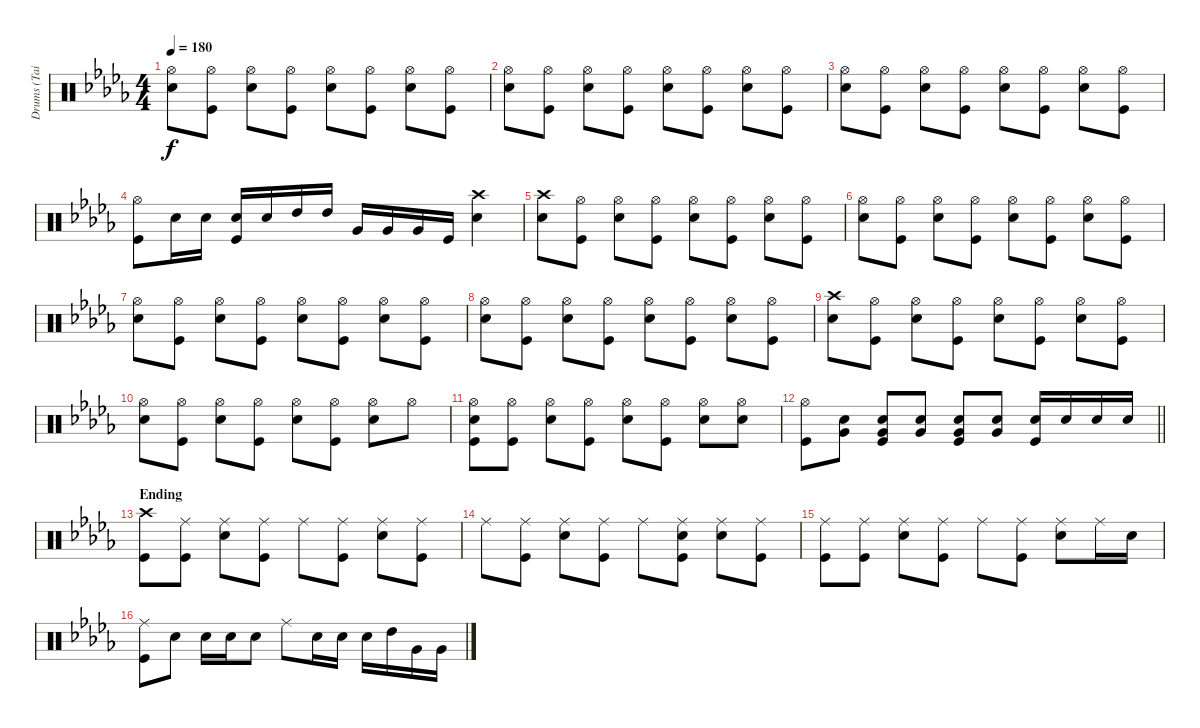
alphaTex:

\track ("Drums (Tainaka Ritsu)" "Drums (Tai") {instrument percussion}
\staff {score}
\articulation defaults
\ts (4 4)
\tempo 180
\clef neutral
\ks db
("Hi-Hat (open)" "Snare (hit) 2").8{dy f} ("Hi-Hat (open)" "Kick (hit)").8 ("Hi-Hat (open)" "Snare (hit) 2").8 ("Hi-Hat (open)" "Kick (hit)").8 ("Hi-Hat (open)" "Snare (hit) 2").8 ("Hi-Hat (open)" "Kick (hit)").8 ("Hi-Hat (open)" "Snare (hit) 2").8 ("Hi-Hat (open)" "Kick (hit)").8 |
("Hi-Hat (open)" "Snare (hit) 2").8 ("Hi-Hat (open)" "Kick (hit)").8 ("Hi-Hat (open)" "Snare (hit) 2").8 ("Hi-Hat (open)" "Kick (hit)").8 ("Hi-Hat (open)" "Snare (hit) 2").8 ("Hi-Hat (open)" "Kick (hit)").8 ("Hi-Hat (open)" "Snare (hit) 2").8 ("Hi-Hat (open)" "Kick (hit)").8 |
("Hi-Hat (open)" "Snare (hit) 2").8 ("Hi-Hat (open)" "Kick (hit)").8 ("Hi-Hat (open)" "Snare (hit) 2").8 ("Hi-Hat (open)" "Kick (hit)").8 ("Hi-Hat (open)" "Snare (hit) 2").8 ("Hi-Hat (open)" "Kick (hit)").8 ("Hi-Hat (open)" "Snare (hit) 2").8 ("Hi-Hat (open)" "Kick (hit)").8 |
("Hi-Hat (open)" "Kick (hit)").8 "Snare (hit) 2".16 "Snare (hit) 2".16 ("Snare (hit) 2" "Kick (hit)").16 "Snare (hit) 2".16 "High Tom (hit)".16 "High Tom (hit)".16 "Very Low Tom (hit)".16 "Very Low Tom (hit)".16 "Very Low Tom (hit)".16 "Kick (hit)".16 ("Crash high (hit)" "Snare (hit) 2").4 |
("Crash high (hit)" "Snare (hit) 2").8 ("Hi-Hat (open)" "Kick (hit)").8 ("Hi-Hat (open)" "Snare (hit) 2").8 ("Hi-Hat (open)" "Kick (hit)").8 ("Hi-Hat (open)" "Snare (hit) 2").8 ("Hi-Hat (open)" "Kick (hit)").8 ("Hi-Hat (open)" "Snare (hit) 2").8 ("Hi-Hat (open)" "Kick (hit)").8 |
("Hi-Hat (open)" "Snare (hit) 2").8 ("Hi-Hat (open)" "Kick (hit)").8 ("Hi-Hat (open)" "Snare (hit) 2").8 ("Hi-Hat (open)" "Kick (hit)").8 ("Hi-Hat (open)" "Snare (hit) 2").8 ("Hi-Hat (open)" "Kick (hit)").8 ("Hi-Hat (open)" "Snare (hit) 2").8 ("Hi-Hat (open)" "Kick (hit)").8 |
("Hi-Hat (open)" "Snare (hit) 2").8 ("Hi-Hat (open)" "Kick (hit)").8 ("Hi-Hat (open)" "Snare (hit) 2").8 ("Hi-Hat (open)" "Kick (hit)").8 ("Hi-Hat (open)" "Snare (hit) 2").8 ("Hi-Hat (open)" "Kick (hit)").8 ("Hi-Hat (open)" "Snare (hit) 2").8 ("Hi-Hat (open)" "Kick (hit)").8 |
("Hi-Hat (open)" "Snare (hit) 2").8 ("Hi-Hat (open)" "Kick (hit)").8 ("Hi-Hat (open)" "Snare (hit) 2").8 ("Hi-Hat (open)" "Kick (hit)").8 ("Hi-Hat (open)" "Snare (hit) 2").8 ("Hi-Hat (open)" "Kick (hit)").8 ("Hi-Hat (open)" "Snare (hit) 2").8 ("Hi-Hat (open)" "Kick (hit)").8 |
("Crash high (hit)" "Snare (hit) 2").8 ("Hi-Hat (open)" "Kick (hit)").8 ("Hi-Hat (open)" "Snare (hit) 2").8 ("Hi-Hat (open)" "Kick (hit)").8 ("Hi-Hat (open)" "Snare (hit) 2").8 ("Hi-Hat (open)" "Kick (hit)").8 ("Hi-Hat (open)" "Snare (hit) 2").8 ("Hi-Hat (open)" "Kick (hit)").8 |
("Hi-Hat (open)" "Snare (hit) 2").8 ("Hi-Hat (open)" "Kick (hit)").8 ("Hi-Hat (open)" "Snare (hit) 2").8 ("Hi-Hat (open)" "Kick (hit)").8 ("Hi-Hat (open)" "Snare (hit) 2").8 ("Hi-Hat (open)" "Kick (hit)").8 ("Hi-Hat (open)" "Snare (hit) 2").8 "Hi-Hat (open)".8 |
("Hi-Hat (open)" "Snare (hit) 2" "Kick (hit)").8 ("Hi-Hat (open)" "Kick (hit)").8 ("Hi-Hat (open)" "Snare (hit) 2").8 ("Hi-Hat (open)" "Kick (hit)").8 ("Hi-Hat (open)" "Snare (hit) 2").8 ("Hi-Hat (open)" "Kick (hit)").8 ("Hi-Hat (open)" "Snare (hit) 2").8 ("Hi-Hat (open)" "Snare (hit) 2").8 |
\barLineRight lightlight
("Hi-Hat (open)" "Kick (hit)").8 ("Snare (hit) 2" "Very Low Tom (hit)").8 ("Snare (hit) 2" "Very Low Tom (hit)" "Kick (hit)").8 ("Snare (hit) 2" "Very Low Tom (hit)").8 ("Snare (hit) 2" "Very Low Tom (hit)" "Kick (hit)").8 ("Snare (hit) 2" "Very Low Tom (hit)").8 ("Snare (hit) 2" "Kick (hit)").16 "Snare (hit) 2".16 "Snare (hit) 2".16 "Snare (hit) 2".16 |
\section ("" "Ending")
("Crash high (hit)" "Kick (hit)").8 ("Ride (middle)" "Kick (hit)").8 ("Ride (middle)" "Snare (hit) 2").8 ("Ride (middle)" "Kick (hit)").8 "Ride (middle)".8 ("Ride (middle)" "Kick (hit)").8 ("Ride (middle)" "Snare (hit) 2").8 ("Ride (middle)" "Kick (hit)").8 |
"Ride (middle)".8 ("Ride (middle)" "Kick (hit)").8 ("Ride (middle)" "Snare (hit) 2").8 ("Ride (middle)" "Kick (hit)").8 "Ride (middle)".8 ("Ride (middle)" "Snare (hit) 2" "Kick (hit)").8 ("Ride (middle)" "Snare (hit) 2").8 ("Ride (middle)" "Kick (hit)").8 |
("Ride (middle)" "Kick (hit)").8 ("Ride (middle)" "Kick (hit)").8 ("Ride (middle)" "Snare (hit) 2").8 ("Ride (middle)" "Kick (hit)").8 "Ride (middle)".8 ("Ride (middle)" "Kick (hit)").8 ("Ride (middle)" "Snare (hit) 2").8 "Ride (middle)".16 "Snare (hit) 2".16 |
("Ride (middle)" "Kick (hit)").8 "Snare (hit) 2".8 "Snare (hit) 2".16 "Snare (hit) 2".16 "Snare (hit) 2".8 "Ride (middle)".8 "Snare (hit) 2".16 "Snare (hit) 2".16 "Snare (hit) 2".16 "High Tom (hit)".16 "Very Low Tom (hit)".16 "Very Low Tom (hit)".16
